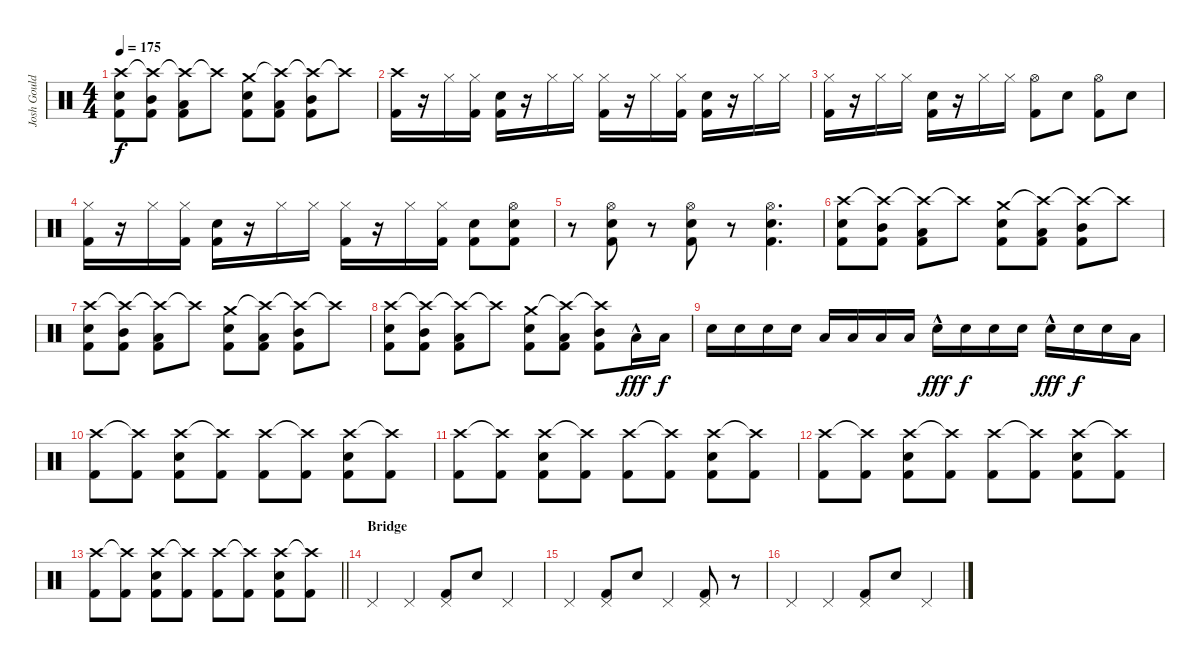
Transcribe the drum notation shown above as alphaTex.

\track ("Josh Gould - Drums" "Josh Gould") {instrument percussion}
\staff {score}
\articulation defaults
\ts (4 4)
\tempo 175
\clef neutral
\ks c
("Crash high (hit)" "Snare (hit) 2" "Kick (hit) 2").8{dy f} ("Crash high (hit)"{t} "Mid Tom (hit)" "Kick (hit) 2").8 ("Crash high (hit)"{t} "Low Tom (hit)" "Kick (hit) 2").8 "Crash high (hit)"{t}.8 ("Crash medium (hit)" "Snare (hit) 2" "Kick (hit) 2").8 ("Crash high (hit)"{t} "Low Tom (hit)" "Kick (hit) 2").8 ("Crash high (hit)"{t} "Mid Tom (hit)" "Kick (hit) 2").8 "Crash high (hit)"{t}.8 |
("Crash high (hit)" "Kick (hit) 2").16 r.16 "Hi-Hat (closed)".16 ("Hi-Hat (closed)" "Kick (hit) 2").16 ("Snare (hit) 2" "Kick (hit) 2").16 r.16 "Hi-Hat (closed)".16 "Hi-Hat (closed)".16 ("Hi-Hat (closed)" "Kick (hit) 2").16 r.16 "Hi-Hat (closed)".16 ("Hi-Hat (closed)" "Kick (hit) 2").16 ("Snare (hit) 2" "Kick (hit) 2").16 r.16 "Hi-Hat (closed)".16 "Hi-Hat (closed)".16 |
("Hi-Hat (closed)" "Kick (hit) 2").16 r.16 "Hi-Hat (closed)".16 "Hi-Hat (closed)".16 ("Snare (hit) 2" "Kick (hit) 2").16 r.16 "Hi-Hat (closed)".16 "Hi-Hat (closed)".16 ("Hi-Hat (open)" "Kick (hit) 2").8 "Snare (hit) 2".8 ("Hi-Hat (open)" "Kick (hit) 2").8 "Snare (hit) 2".8 |
("Hi-Hat (closed)" "Kick (hit) 2").16 r.16 "Hi-Hat (closed)".16 ("Hi-Hat (closed)" "Kick (hit) 2").16 ("Snare (hit) 2" "Kick (hit) 2").16 r.16 "Hi-Hat (closed)".16 "Hi-Hat (closed)".16 ("Hi-Hat (closed)" "Kick (hit) 2").16 r.16 "Hi-Hat (closed)".16 ("Hi-Hat (closed)" "Kick (hit) 2").16 ("Snare (hit) 2" "Kick (hit) 2").8 ("Hi-Hat (open)" "Snare (hit) 2" "Kick (hit) 2").8 |
r.8 ("Hi-Hat (open)" "Snare (hit) 2" "Kick (hit) 2").8 r.8 ("Hi-Hat (open)" "Snare (hit) 2" "Kick (hit) 2").8 r.8 ("Hi-Hat (open)" "Snare (hit) 2" "Kick (hit) 2").4{d} |
("Crash high (hit)" "Snare (hit) 2" "Kick (hit) 2").8 ("Crash high (hit)"{t} "Mid Tom (hit)" "Kick (hit) 2").8 ("Crash high (hit)"{t} "Low Tom (hit)" "Kick (hit) 2").8 "Crash high (hit)"{t}.8 ("Crash medium (hit)" "Snare (hit) 2" "Kick (hit) 2").8 ("Crash high (hit)"{t} "Low Tom (hit)" "Kick (hit) 2").8 ("Crash high (hit)"{t} "Mid Tom (hit)" "Kick (hit) 2").8 "Crash high (hit)"{t}.8 |
("Crash high (hit)" "Snare (hit) 2" "Kick (hit) 2").8 ("Crash high (hit)"{t} "Mid Tom (hit)" "Kick (hit) 2").8 ("Crash high (hit)"{t} "Low Tom (hit)" "Kick (hit) 2").8 "Crash high (hit)"{t}.8 ("Crash medium (hit)" "Snare (hit) 2" "Kick (hit) 2").8 ("Crash high (hit)"{t} "Low Tom (hit)" "Kick (hit) 2").8 ("Crash high (hit)"{t} "Mid Tom (hit)" "Kick (hit) 2").8 "Crash high (hit)"{t}.8 |
("Crash high (hit)" "Snare (hit) 2" "Kick (hit) 2").8 ("Crash high (hit)"{t} "Mid Tom (hit)" "Kick (hit) 2").8 ("Crash high (hit)"{t} "Low Tom (hit)" "Kick (hit) 2").8 "Crash high (hit)"{t}.8 ("Crash medium (hit)" "Snare (hit) 2" "Kick (hit) 2").8 ("Crash high (hit)"{t} "Low Tom (hit)" "Kick (hit) 2").8 ("Crash high (hit)"{t} "Mid Tom (hit)" "Kick (hit) 2").8 "Low Tom (hit)"{hac}.16{dy fff} "Low Tom (hit)".16{dy f} |
"Snare (hit) 2".16 "Snare (hit) 2".16 "Snare (hit) 2".16 "Snare (hit) 2".16 "Low Tom (hit)".16 "Low Tom (hit)".16 "Low Tom (hit)".16 "Low Tom (hit)".16 "Snare (hit) 2"{hac}.16{dy fff} "Snare (hit) 2".16{dy f} "Snare (hit) 2".16 "Snare (hit) 2".16 "Snare (hit) 2"{hac}.16{dy fff} "Snare (hit) 2".16{dy f} "Snare (hit) 2".16 "Low Tom (hit)".16 |
("Crash high (hit)" "Kick (hit) 2").8 ("Crash high (hit)"{t} "Kick (hit) 2").8 ("Crash high (hit)" "Snare (hit) 2" "Kick (hit) 2").8 ("Crash high (hit)"{t} "Kick (hit) 2").8 ("Crash high (hit)" "Kick (hit) 2").8 ("Crash high (hit)"{t} "Kick (hit) 2").8 ("Crash high (hit)" "Snare (hit) 2" "Kick (hit) 2").8 ("Crash high (hit)"{t} "Kick (hit) 2").8 |
("Crash high (hit)" "Kick (hit) 2").8 ("Crash high (hit)"{t} "Kick (hit) 2").8 ("Crash high (hit)" "Snare (hit) 2" "Kick (hit) 2").8 ("Crash high (hit)"{t} "Kick (hit) 2").8 ("Crash high (hit)" "Kick (hit) 2").8 ("Crash high (hit)"{t} "Kick (hit) 2").8 ("Crash high (hit)" "Snare (hit) 2" "Kick (hit) 2").8 ("Crash high (hit)"{t} "Kick (hit) 2").8 |
("Crash high (hit)" "Kick (hit) 2").8 ("Crash high (hit)"{t} "Kick (hit) 2").8 ("Crash high (hit)" "Snare (hit) 2" "Kick (hit) 2").8 ("Crash high (hit)"{t} "Kick (hit) 2").8 ("Crash high (hit)" "Kick (hit) 2").8 ("Crash high (hit)"{t} "Kick (hit) 2").8 ("Crash high (hit)" "Snare (hit) 2" "Kick (hit) 2").8 ("Crash high (hit)"{t} "Kick (hit) 2").8 |
\barLineRight lightlight
("Crash high (hit)" "Kick (hit) 2").8 ("Crash high (hit)"{t} "Kick (hit) 2").8 ("Crash high (hit)" "Snare (hit) 2" "Kick (hit) 2").8 ("Crash high (hit)"{t} "Kick (hit) 2").8 ("Crash high (hit)" "Kick (hit) 2").8 ("Crash high (hit)"{t} "Kick (hit) 2").8 ("Crash high (hit)" "Snare (hit) 2" "Kick (hit) 2").8 ("Crash high (hit)"{t} "Kick (hit) 2").8 |
\section ("" "Bridge")
"Pedal Hi-Hat (hit)".4{volume 13} "Pedal Hi-Hat (hit)".4 ("Pedal Hi-Hat (hit)" "Kick (hit) 2").8 "Snare (hit) 2".8 "Pedal Hi-Hat (hit)".4 |
"Pedal Hi-Hat (hit)".4 ("Pedal Hi-Hat (hit)" "Kick (hit) 2").8 "Snare (hit) 2".8 "Pedal Hi-Hat (hit)".4 ("Pedal Hi-Hat (hit)" "Kick (hit) 2").8 r.8 |
"Pedal Hi-Hat (hit)".4 "Pedal Hi-Hat (hit)".4 ("Pedal Hi-Hat (hit)" "Kick (hit) 2").8 "Snare (hit) 2".8 "Pedal Hi-Hat (hit)".4
